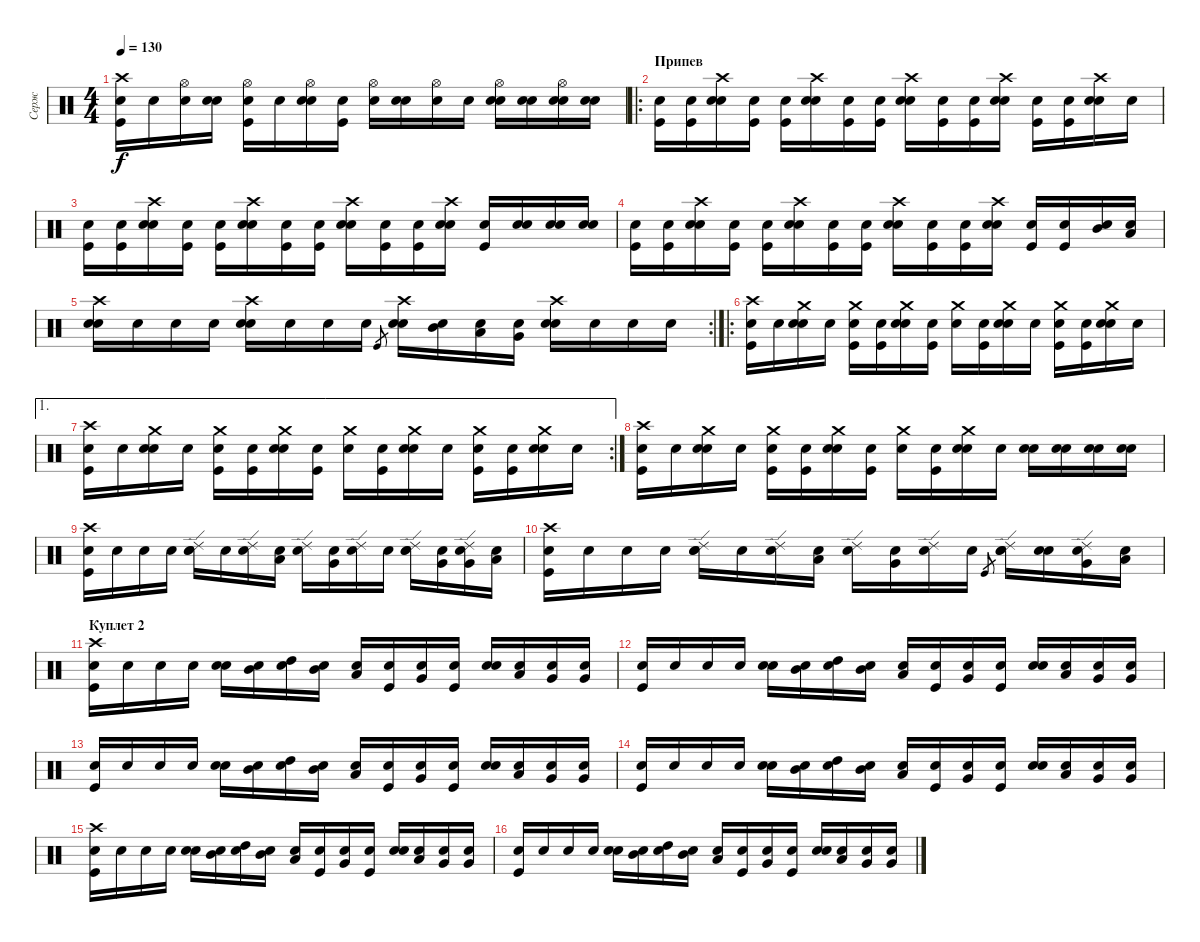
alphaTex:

\track ("Серж" "Серж") {instrument percussion}
\staff {score}
\articulation defaults
\ts (4 4)
\tempo 130
\clef neutral
\ks c
("Snare (hit)"{x} "Kick (hit)" "Crash high (hit)").16{dy f} "Snare (hit)"{x}.16 ("Snare (hit)"{x} "Hi-Hat (open)").16 ("Snare (hit)"{x} "Snare (hit) 2").16 ("Snare (hit)"{x} "Kick (hit)" "Hi-Hat (open)").16 "Snare (hit)"{x}.16 ("Snare (hit)"{x} "Snare (hit) 2" "Hi-Hat (open)").16 ("Snare (hit)"{x} "Kick (hit)").16 ("Snare (hit)"{x} "Hi-Hat (open)").16 ("Snare (hit)"{x} "Snare (hit) 2").16 ("Snare (hit)"{x} "Hi-Hat (open)").16 "Snare (hit)"{x}.16 ("Snare (hit)"{x} "Snare (hit) 2" "Hi-Hat (open)").16 ("Snare (hit)"{x} "Snare (hit) 2").16 ("Snare (hit)"{x} "Snare (hit) 2" "Hi-Hat (open)").16 ("Snare (hit)"{x} "Snare (hit) 2").16 |
\ro
\section ("" "Припев")
("Snare (hit)"{x} "Kick (hit)").16 ("Snare (hit)"{x} "Kick (hit)").16 ("Snare (hit)"{x} "Snare (hit) 2" "Crash high (hit)").16 ("Snare (hit)"{x} "Kick (hit)").16 ("Snare (hit)"{x} "Kick (hit)").16 ("Snare (hit)"{x} "Snare (hit) 2" "Crash high (hit)").16 ("Snare (hit)"{x} "Kick (hit)").16 ("Snare (hit)"{x} "Kick (hit)").16 ("Snare (hit)"{x} "Snare (hit) 2" "Crash high (hit)").16 ("Snare (hit)"{x} "Kick (hit)").16 ("Snare (hit)"{x} "Kick (hit)").16 ("Snare (hit)"{x} "Snare (hit) 2" "Crash high (hit)").16 ("Snare (hit)"{x} "Kick (hit)").16 ("Snare (hit)"{x} "Kick (hit)").16 ("Snare (hit)"{x} "Snare (hit) 2" "Crash high (hit)").16 "Snare (hit)"{x}.16 |
("Snare (hit)"{x} "Kick (hit)").16 ("Snare (hit)"{x} "Kick (hit)").16 ("Snare (hit)"{x} "Snare (hit) 2" "Crash high (hit)").16 ("Snare (hit)"{x} "Kick (hit)").16 ("Snare (hit)"{x} "Kick (hit)").16 ("Snare (hit)"{x} "Snare (hit) 2" "Crash high (hit)").16 ("Snare (hit)"{x} "Kick (hit)").16 ("Snare (hit)"{x} "Kick (hit)").16 ("Snare (hit)"{x} "Snare (hit) 2" "Crash high (hit)").16 ("Snare (hit)"{x} "Kick (hit)").16 ("Snare (hit)"{x} "Kick (hit)").16 ("Snare (hit)"{x} "Snare (hit) 2" "Crash high (hit)").16 ("Snare (hit)"{x} "Kick (hit)").16 ("Snare (hit)"{x} "Snare (hit) 2").16 ("Snare (hit)"{x} "Snare (hit) 2").16 ("Snare (hit)"{x} "Snare (hit) 2").16 |
("Snare (hit)"{x} "Kick (hit)").16 ("Snare (hit)"{x} "Kick (hit)").16 ("Snare (hit)"{x} "Snare (hit) 2" "Crash high (hit)").16 ("Snare (hit)"{x} "Kick (hit)").16 ("Snare (hit)"{x} "Kick (hit)").16 ("Snare (hit)"{x} "Snare (hit) 2" "Crash high (hit)").16 ("Snare (hit)"{x} "Kick (hit)").16 ("Snare (hit)"{x} "Kick (hit)").16 ("Snare (hit)"{x} "Snare (hit) 2" "Crash high (hit)").16 ("Snare (hit)"{x} "Kick (hit)").16 ("Snare (hit)"{x} "Kick (hit)").16 ("Snare (hit)"{x} "Snare (hit) 2" "Crash high (hit)").16 ("Snare (hit)"{x} "Kick (hit)").16 ("Snare (hit)"{x} "Kick (hit)").16 ("Snare (hit)"{x} "Mid Tom (hit)").16 ("Snare (hit)"{x} "Low Tom (hit)").16 |
\rc 2
("Snare (hit)"{x} "Snare (hit) 2" "Crash high (hit)").16 "Snare (hit)"{x}.16 "Snare (hit)"{x}.16 "Snare (hit)"{x}.16 ("Snare (hit)"{x} "Snare (hit) 2" "Crash high (hit)").16 "Snare (hit)"{x}.16 "Snare (hit)"{x}.16 "Snare (hit)"{x}.16 "Kick (hit)".8{gr} ("Snare (hit)"{x} "Snare (hit) 2" "Crash high (hit)").16 ("Snare (hit)"{x} "Mid Tom (hit)").16 ("Snare (hit)"{x} "Low Tom (hit)").16 ("Snare (hit)"{x} "Very Low Tom (hit)").16 ("Snare (hit)"{x} "Snare (hit) 2" "Crash high (hit)").16 "Snare (hit)"{x}.16 "Snare (hit)"{x}.16 "Snare (hit)"{x}.16 |
\ro
("Snare (hit)"{x} "Kick (hit)" "Crash high (hit)").16 "Snare (hit)"{x}.16 ("Snare (hit)"{x} "Snare (hit) 2" "Crash medium (hit)").16 "Snare (hit)"{x}.16 ("Snare (hit)"{x} "Kick (hit)" "Crash medium (hit)").16 ("Snare (hit)"{x} "Kick (hit)").16 ("Snare (hit)"{x} "Snare (hit) 2" "Crash medium (hit)").16 ("Snare (hit)"{x} "Kick (hit)").16 ("Snare (hit)"{x} "Crash medium (hit)").16 ("Snare (hit)"{x} "Kick (hit)").16 ("Snare (hit)"{x} "Snare (hit) 2" "Crash medium (hit)").16 "Snare (hit)"{x}.16 ("Snare (hit)"{x} "Kick (hit)" "Crash medium (hit)").16 ("Snare (hit)"{x} "Kick (hit)").16 ("Snare (hit)"{x} "Snare (hit) 2" "Crash medium (hit)").16 "Snare (hit)"{x}.16 |
\ae 1
\rc 2
("Snare (hit)"{x} "Kick (hit)" "Crash high (hit)").16 "Snare (hit)"{x}.16 ("Snare (hit)"{x} "Snare (hit) 2" "Crash medium (hit)").16 "Snare (hit)"{x}.16 ("Snare (hit)"{x} "Kick (hit)" "Crash medium (hit)").16 ("Snare (hit)"{x} "Kick (hit)").16 ("Snare (hit)"{x} "Snare (hit) 2" "Crash medium (hit)").16 ("Snare (hit)"{x} "Kick (hit)").16 ("Snare (hit)"{x} "Crash medium (hit)").16 ("Snare (hit)"{x} "Kick (hit)").16 ("Snare (hit)"{x} "Snare (hit) 2" "Crash medium (hit)").16 "Snare (hit)"{x}.16 ("Snare (hit)"{x} "Kick (hit)" "Crash medium (hit)").16 ("Snare (hit)"{x} "Kick (hit)").16 ("Snare (hit)"{x} "Snare (hit) 2" "Crash medium (hit)").16 "Snare (hit)"{x}.16 |
("Snare (hit)"{x} "Kick (hit)" "Crash high (hit)").16 "Snare (hit)"{x}.16 ("Snare (hit)"{x} "Snare (hit) 2" "Crash medium (hit)").16 "Snare (hit)"{x}.16 ("Snare (hit)"{x} "Kick (hit)" "Crash medium (hit)").16 ("Snare (hit)"{x} "Kick (hit)").16 ("Snare (hit)"{x} "Snare (hit) 2" "Crash medium (hit)").16 ("Snare (hit)"{x} "Kick (hit)").16 ("Snare (hit)"{x} "Crash medium (hit)").16 ("Snare (hit)"{x} "Kick (hit)").16 ("Snare (hit)"{x} "Snare (hit) 2" "Crash medium (hit)").16 "Snare (hit)"{x}.16 ("Snare (hit)"{x} "Snare (hit) 2").16 ("Snare (hit)"{x} "Snare (hit) 2").16 ("Snare (hit)"{x} "Snare (hit) 2").16 ("Snare (hit)"{x} "Snare (hit) 2").16 |
("Snare (hit)"{x} "Kick (hit)" "Crash high (hit)").16 "Snare (hit)"{x}.16 "Snare (hit)"{x}.16 "Snare (hit)"{x}.16 ("Snare (hit)"{x} "Snare (hit) 2" "Ride (edge) 2").16 "Snare (hit)"{x}.16 ("Snare (hit)"{x} "Ride (edge) 2").16 ("Snare (hit)"{x} "Low Tom (hit)").16 ("Snare (hit)"{x} "Ride (edge) 2").16 ("Snare (hit)"{x} "Very Low Tom (hit)").16 ("Snare (hit)"{x} "Ride (edge) 2").16 "Snare (hit)"{x}.16 ("Snare (hit)"{x} "Snare (hit) 2" "Ride (edge) 2").16 ("Snare (hit)"{x} "Very Low Tom (hit)").16 ("Snare (hit)"{x} "Very Low Tom (hit)" "Ride (edge) 2").16 ("Snare (hit)"{x} "Low Floor Tom (hit)").16 |
("Snare (hit)"{x} "Kick (hit)" "Crash high (hit)").16 "Snare (hit)"{x}.16 "Snare (hit)"{x}.16 "Snare (hit)"{x}.16 ("Snare (hit)"{x} "Snare (hit) 2" "Ride (edge) 2").16 "Snare (hit)"{x}.16 ("Snare (hit)"{x} "Ride (edge) 2").16 ("Snare (hit)"{x} "Low Tom (hit)").16 ("Snare (hit)"{x} "Ride (edge) 2").16 ("Snare (hit)"{x} "Very Low Tom (hit)").16 ("Snare (hit)"{x} "Ride (edge) 2").16 "Snare (hit)"{x}.16 "Kick (hit)".8{gr} ("Snare (hit)"{x} "Snare (hit) 2" "Ride (edge) 2").16 ("Snare (hit)"{x} "Snare (hit) 2").16 ("Snare (hit)"{x} "Very Low Tom (hit)" "Ride (edge) 2").16 ("Snare (hit)"{x} "Low Floor Tom (hit)").16 |
\section ("" "Куплет 2")
("Snare (hit)"{x} "Kick (hit)" "Crash high (hit)").16 "Snare (hit)"{x}.16 "Snare (hit)"{x}.16 "Snare (hit)"{x}.16 ("Snare (hit)"{x} "Snare (hit) 2").16 ("Snare (hit)"{x} "Mid Tom (hit)").16 ("Snare (hit)"{x} "High Tom (hit)").16 ("Snare (hit)"{x} "Mid Tom (hit)").16 ("Snare (hit)"{x} "Low Tom (hit)").16 ("Snare (hit)"{x} "Kick (hit)").16 ("Snare (hit)"{x} "Very Low Tom (hit)").16 ("Snare (hit)"{x} "Kick (hit)").16 ("Snare (hit)"{x} "Snare (hit) 2").16 ("Snare (hit)"{x} "Low Tom (hit)").16 ("Snare (hit)"{x} "Very Low Tom (hit)").16 ("Snare (hit)"{x} "Very Low Tom (hit)").16 |
("Snare (hit)"{x} "Kick (hit)").16 "Snare (hit)"{x}.16 "Snare (hit)"{x}.16 "Snare (hit)"{x}.16 ("Snare (hit)"{x} "Snare (hit) 2").16 ("Snare (hit)"{x} "Mid Tom (hit)").16 ("Snare (hit)"{x} "High Tom (hit)").16 ("Snare (hit)"{x} "Mid Tom (hit)").16 ("Snare (hit)"{x} "Low Tom (hit)").16 ("Snare (hit)"{x} "Kick (hit)").16 ("Snare (hit)"{x} "Very Low Tom (hit)").16 ("Snare (hit)"{x} "Kick (hit)").16 ("Snare (hit)"{x} "Snare (hit) 2").16 ("Snare (hit)"{x} "Low Tom (hit)").16 ("Snare (hit)"{x} "Very Low Tom (hit)").16 ("Snare (hit)"{x} "Very Low Tom (hit)").16 |
("Snare (hit)"{x} "Kick (hit)").16 "Snare (hit)"{x}.16 "Snare (hit)"{x}.16 "Snare (hit)"{x}.16 ("Snare (hit)"{x} "Snare (hit) 2").16 ("Snare (hit)"{x} "Mid Tom (hit)").16 ("Snare (hit)"{x} "High Tom (hit)").16 ("Snare (hit)"{x} "Mid Tom (hit)").16 ("Snare (hit)"{x} "Low Tom (hit)").16 ("Snare (hit)"{x} "Kick (hit)").16 ("Snare (hit)"{x} "Very Low Tom (hit)").16 ("Snare (hit)"{x} "Kick (hit)").16 ("Snare (hit)"{x} "Snare (hit) 2").16 ("Snare (hit)"{x} "Low Tom (hit)").16 ("Snare (hit)"{x} "Very Low Tom (hit)").16 ("Snare (hit)"{x} "Very Low Tom (hit)").16 |
("Snare (hit)"{x} "Kick (hit)").16 "Snare (hit)"{x}.16 "Snare (hit)"{x}.16 "Snare (hit)"{x}.16 ("Snare (hit)"{x} "Snare (hit) 2").16 ("Snare (hit)"{x} "Mid Tom (hit)").16 ("Snare (hit)"{x} "High Tom (hit)").16 ("Snare (hit)"{x} "Mid Tom (hit)").16 ("Snare (hit)"{x} "Low Tom (hit)").16 ("Snare (hit)"{x} "Kick (hit)").16 ("Snare (hit)"{x} "Very Low Tom (hit)").16 ("Snare (hit)"{x} "Kick (hit)").16 ("Snare (hit)"{x} "Snare (hit) 2").16 ("Snare (hit)"{x} "Low Tom (hit)").16 ("Snare (hit)"{x} "Very Low Tom (hit)").16 ("Snare (hit)"{x} "Very Low Tom (hit)").16 |
("Snare (hit)"{x} "Kick (hit)" "Crash high (hit)").16 "Snare (hit)"{x}.16 "Snare (hit)"{x}.16 "Snare (hit)"{x}.16 ("Snare (hit)"{x} "Snare (hit) 2").16 ("Snare (hit)"{x} "Mid Tom (hit)").16 ("Snare (hit)"{x} "High Tom (hit)").16 ("Snare (hit)"{x} "Mid Tom (hit)").16 ("Snare (hit)"{x} "Low Tom (hit)").16 ("Snare (hit)"{x} "Kick (hit)").16 ("Snare (hit)"{x} "Very Low Tom (hit)").16 ("Snare (hit)"{x} "Kick (hit)").16 ("Snare (hit)"{x} "Snare (hit) 2").16 ("Snare (hit)"{x} "Low Tom (hit)").16 ("Snare (hit)"{x} "Very Low Tom (hit)").16 ("Snare (hit)"{x} "Very Low Tom (hit)").16 |
("Snare (hit)"{x} "Kick (hit)").16 "Snare (hit)"{x}.16 "Snare (hit)"{x}.16 "Snare (hit)"{x}.16 ("Snare (hit)"{x} "Snare (hit) 2").16 ("Snare (hit)"{x} "Mid Tom (hit)").16 ("Snare (hit)"{x} "High Tom (hit)").16 ("Snare (hit)"{x} "Mid Tom (hit)").16 ("Snare (hit)"{x} "Low Tom (hit)").16 ("Snare (hit)"{x} "Kick (hit)").16 ("Snare (hit)"{x} "Very Low Tom (hit)").16 ("Snare (hit)"{x} "Kick (hit)").16 ("Snare (hit)"{x} "Snare (hit) 2").16 ("Snare (hit)"{x} "Low Tom (hit)").16 ("Snare (hit)"{x} "Very Low Tom (hit)").16 ("Snare (hit)"{x} "Very Low Tom (hit)").16
